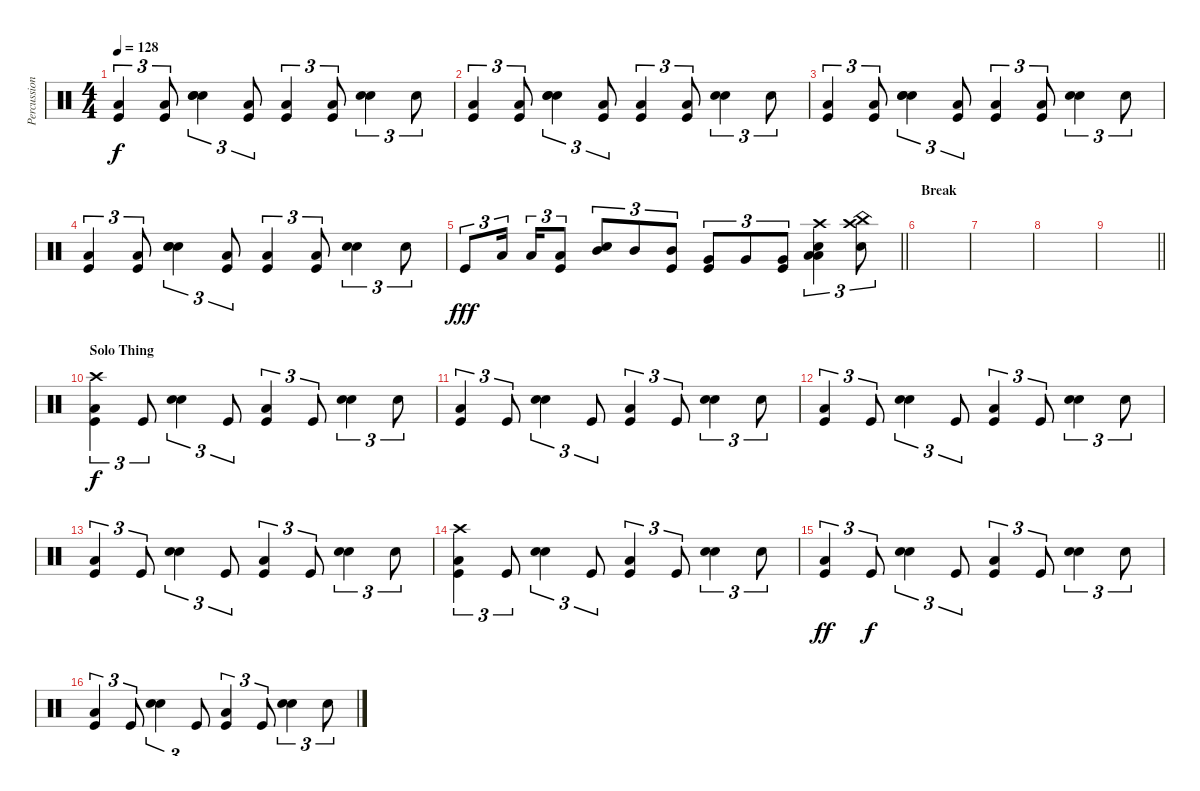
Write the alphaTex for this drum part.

\track ("Percussion" "Percussion") {instrument percussion}
\staff {score}
\articulation defaults
\ts (4 4)
\tempo 128
\clef neutral
\ks c
("Low Floor Tom (hit)" "Kick (hit)").4{tu (3 2) dy f} ("Low Floor Tom (hit)" "Kick (hit)").8{tu (3 2)} ("Hand Clap (hit)" "Electric Snare (hit)" "Snare (hit) 2").4{tu (3 2)} ("Low Floor Tom (hit)" "Kick (hit)").8{tu (3 2)} ("Low Floor Tom (hit)" "Kick (hit)").4{tu (3 2)} ("Low Floor Tom (hit)" "Kick (hit)").8{tu (3 2)} ("Hand Clap (hit)" "Electric Snare (hit)").4{tu (3 2)} "Hand Clap (hit)".8{tu (3 2)} |
("Low Floor Tom (hit)" "Kick (hit)").4{tu (3 2)} ("Low Floor Tom (hit)" "Kick (hit)").8{tu (3 2)} ("Hand Clap (hit)" "Electric Snare (hit)" "Snare (hit) 2").4{tu (3 2)} ("Low Floor Tom (hit)" "Kick (hit)").8{tu (3 2)} ("Low Floor Tom (hit)" "Kick (hit)").4{tu (3 2)} ("Low Floor Tom (hit)" "Kick (hit)").8{tu (3 2)} ("Hand Clap (hit)" "Electric Snare (hit)").4{tu (3 2)} "Hand Clap (hit)".8{tu (3 2)} |
("Low Floor Tom (hit)" "Kick (hit)").4{tu (3 2)} ("Low Floor Tom (hit)" "Kick (hit)").8{tu (3 2)} ("Hand Clap (hit)" "Electric Snare (hit)" "Snare (hit) 2").4{tu (3 2)} ("Low Floor Tom (hit)" "Kick (hit)").8{tu (3 2)} ("Low Floor Tom (hit)" "Kick (hit)").4{tu (3 2)} ("Low Floor Tom (hit)" "Kick (hit)").8{tu (3 2)} ("Hand Clap (hit)" "Electric Snare (hit)").4{tu (3 2)} "Hand Clap (hit)".8{tu (3 2)} |
("Low Floor Tom (hit)" "Kick (hit)").4{tu (3 2)} ("Low Floor Tom (hit)" "Kick (hit)").8{tu (3 2)} ("Hand Clap (hit)" "Electric Snare (hit)" "Snare (hit) 2").4{tu (3 2)} ("Low Floor Tom (hit)" "Kick (hit)").8{tu (3 2)} ("Low Floor Tom (hit)" "Kick (hit)").4{tu (3 2)} ("Low Floor Tom (hit)" "Kick (hit)").8{tu (3 2)} ("Hand Clap (hit)" "Electric Snare (hit)").4{tu (3 2)} "Hand Clap (hit)".8{tu (3 2)} |
\barLineRight lightlight "Kick (hit)".8{tu (3 2) dy fff} "Low Tom (hit)".16{tu (3 2) beam splitsecondary} "Low Tom (hit)".16{tu (3 2)}
("Low Tom (hit)" "Kick (hit)").8{tu (3 2)} ("Hand Clap (hit)" "Mid Tom (hit)").8{tu (3 2)} "Mid Tom (hit)".8{tu (3 2)} ("Mid Tom (hit)" "Kick (hit)").8{tu (3 2)} ("Very Low Tom (hit)" "Kick (hit)").8{tu (3 2)} "Very Low Tom (hit)".8{tu (3 2)} ("Very Low Tom (hit)" "Kick (hit)").8{tu (3 2)} ("Crash high (hit)" "Hand Clap (hit)" "Low Floor Tom (hit)" "Low Floor Tom (hit)").4{tu (3 2)} ("Crash high (hit)" "Hand Clap (hit)" "China (hit)").8{tu (3 2)} |
\section ("" "Break")
|
|
|
\barLineRight lightlight
|
\section ("" "Solo Thing")
("Crash high (hit)" "Low Floor Tom (hit)" "Kick (hit)").4{tu (3 2) dy f} "Kick (hit)".8{tu (3 2)} ("Hand Clap (hit)" "Electric Snare (hit)").4{tu (3 2)} "Kick (hit)".8{tu (3 2)} ("Low Floor Tom (hit)" "Kick (hit)").4{tu (3 2)} "Kick (hit)".8{tu (3 2)} ("Hand Clap (hit)" "Electric Snare (hit)").4{tu (3 2)} "Hand Clap (hit)".8{tu (3 2)} |
("Low Floor Tom (hit)" "Kick (hit)").4{tu (3 2)} "Kick (hit)".8{tu (3 2)} ("Hand Clap (hit)" "Electric Snare (hit)").4{tu (3 2)} "Kick (hit)".8{tu (3 2)} ("Low Floor Tom (hit)" "Kick (hit)").4{tu (3 2)} "Kick (hit)".8{tu (3 2)} ("Hand Clap (hit)" "Electric Snare (hit)").4{tu (3 2)} "Hand Clap (hit)".8{tu (3 2)} |
("Low Floor Tom (hit)" "Kick (hit)").4{tu (3 2)} "Kick (hit)".8{tu (3 2)} ("Hand Clap (hit)" "Electric Snare (hit)").4{tu (3 2)} "Kick (hit)".8{tu (3 2)} ("Low Floor Tom (hit)" "Kick (hit)").4{tu (3 2)} "Kick (hit)".8{tu (3 2)} ("Hand Clap (hit)" "Electric Snare (hit)").4{tu (3 2)} "Hand Clap (hit)".8{tu (3 2)} |
("Low Floor Tom (hit)" "Kick (hit)").4{tu (3 2)} "Kick (hit)".8{tu (3 2)} ("Hand Clap (hit)" "Electric Snare (hit)").4{tu (3 2)} "Kick (hit)".8{tu (3 2)} ("Low Floor Tom (hit)" "Kick (hit)").4{tu (3 2)} "Kick (hit)".8{tu (3 2)} ("Hand Clap (hit)" "Electric Snare (hit)").4{tu (3 2)} "Hand Clap (hit)".8{tu (3 2)} |
("Crash high (hit)" "Low Floor Tom (hit)" "Kick (hit)").4{tu (3 2)} "Kick (hit)".8{tu (3 2)} ("Hand Clap (hit)" "Electric Snare (hit)").4{tu (3 2)} "Kick (hit)".8{tu (3 2)} ("Low Floor Tom (hit)" "Kick (hit)").4{tu (3 2)} "Kick (hit)".8{tu (3 2)} ("Hand Clap (hit)" "Electric Snare (hit)").4{tu (3 2)} "Hand Clap (hit)".8{tu (3 2)} |
("Low Floor Tom (hit)" "Kick (hit)").4{tu (3 2) dy ff} "Kick (hit)".8{tu (3 2) dy f} ("Hand Clap (hit)" "Electric Snare (hit)").4{tu (3 2)} "Kick (hit)".8{tu (3 2)} ("Low Floor Tom (hit)" "Kick (hit)").4{tu (3 2)} "Kick (hit)".8{tu (3 2)} ("Hand Clap (hit)" "Electric Snare (hit)").4{tu (3 2)} "Hand Clap (hit)".8{tu (3 2)} |
("Low Floor Tom (hit)" "Kick (hit)").4{tu (3 2)} "Kick (hit)".8{tu (3 2)} ("Hand Clap (hit)" "Electric Snare (hit)").4{tu (3 2)} "Kick (hit)".8{tu (3 2)} ("Low Floor Tom (hit)" "Kick (hit)").4{tu (3 2)} "Kick (hit)".8{tu (3 2)} ("Hand Clap (hit)" "Electric Snare (hit)").4{tu (3 2)} "Hand Clap (hit)".8{tu (3 2)}
